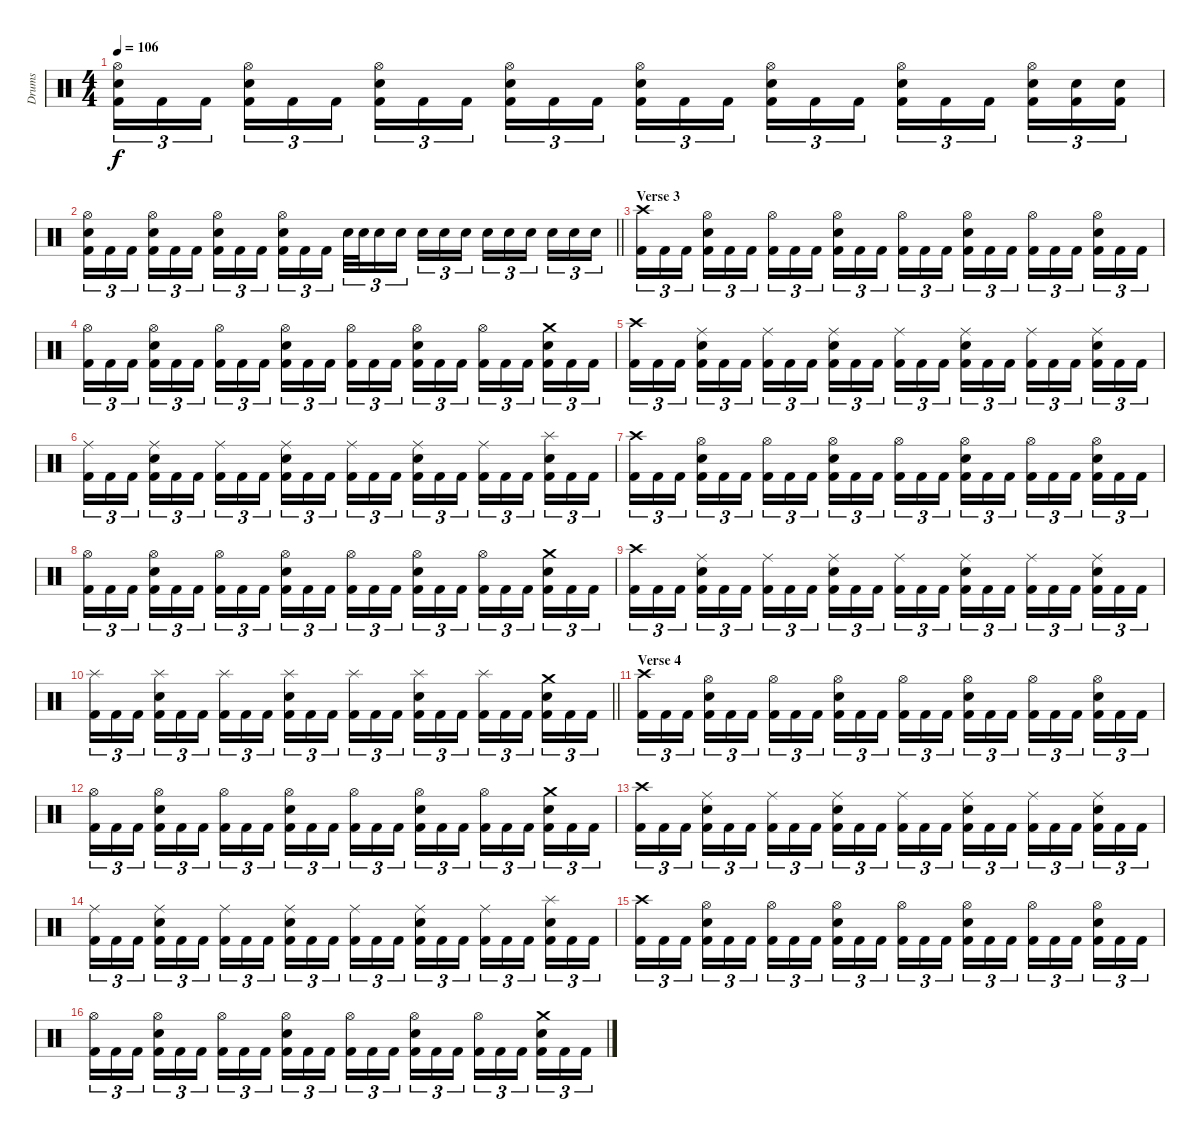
\track ("Drums" "Drums") {instrument percussion}
\staff {score}
\articulation defaults
\ts (4 4)
\tempo 106
\clef neutral
\ks c
("Hi-Hat (open)" "Electric Snare (hit)" "Kick (hit) 2").16{tu (3 2) dy f} "Kick (hit) 2".16{tu (3 2)} "Kick (hit) 2".16{tu (3 2)} ("Hi-Hat (open)" "Electric Snare (hit)" "Kick (hit) 2").16{tu (3 2)} "Kick (hit) 2".16{tu (3 2)} "Kick (hit) 2".16{tu (3 2)} ("Hi-Hat (open)" "Electric Snare (hit)" "Kick (hit) 2").16{tu (3 2)} "Kick (hit) 2".16{tu (3 2)} "Kick (hit) 2".16{tu (3 2)} ("Hi-Hat (open)" "Electric Snare (hit)" "Kick (hit) 2").16{tu (3 2)} "Kick (hit) 2".16{tu (3 2)} "Kick (hit) 2".16{tu (3 2)} ("Hi-Hat (open)" "Electric Snare (hit)" "Kick (hit) 2").16{tu (3 2)} "Kick (hit) 2".16{tu (3 2)} "Kick (hit) 2".16{tu (3 2)} ("Hi-Hat (open)" "Electric Snare (hit)" "Kick (hit) 2").16{tu (3 2)} "Kick (hit) 2".16{tu (3 2)} "Kick (hit) 2".16{tu (3 2)} ("Hi-Hat (open)" "Electric Snare (hit)" "Kick (hit) 2").16{tu (3 2)} "Kick (hit) 2".16{tu (3 2)} "Kick (hit) 2".16{tu (3 2)} ("Hi-Hat (open)" "Electric Snare (hit)" "Kick (hit) 2").16{tu (3 2)} ("Electric Snare (hit)" "Kick (hit) 2").16{tu (3 2)} ("Electric Snare (hit)" "Kick (hit) 2").16{tu (3 2)} |
\barLineRight lightlight
("Hi-Hat (open)" "Electric Snare (hit)" "Kick (hit) 2").16{tu (3 2)} "Kick (hit) 2".16{tu (3 2)} "Kick (hit) 2".16{tu (3 2)} ("Hi-Hat (open)" "Electric Snare (hit)" "Kick (hit) 2").16{tu (3 2)} "Kick (hit) 2".16{tu (3 2)} "Kick (hit) 2".16{tu (3 2)} ("Hi-Hat (open)" "Electric Snare (hit)" "Kick (hit) 2").16{tu (3 2)} "Kick (hit) 2".16{tu (3 2)} "Kick (hit) 2".16{tu (3 2)} ("Hi-Hat (open)" "Electric Snare (hit)" "Kick (hit) 2").16{tu (3 2)} "Kick (hit) 2".16{tu (3 2)} "Kick (hit) 2".16{tu (3 2)} "Electric Snare (hit)".32{tu (3 2)} "Electric Snare (hit)".32{tu (3 2)} "Electric Snare (hit)".16{tu (3 2)} "Electric Snare (hit)".16{tu (3 2)} "Electric Snare (hit)".16{tu (3 2)} "Electric Snare (hit)".16{tu (3 2)} "Electric Snare (hit)".16{tu (3 2)} "Electric Snare (hit)".16{tu (3 2)} "Electric Snare (hit)".16{tu (3 2)} "Electric Snare (hit)".16{tu (3 2)} "Electric Snare (hit)".16{tu (3 2)} "Electric Snare (hit)".16{tu (3 2)} "Electric Snare (hit)".16{tu (3 2)} |
\section ("" "Verse 3")
("Crash high (hit)" "Kick (hit) 2").16{tu (3 2)} "Kick (hit) 2".16{tu (3 2)} "Kick (hit) 2".16{tu (3 2)} ("Hi-Hat (open)" "Electric Snare (hit)" "Kick (hit) 2").16{tu (3 2)} "Kick (hit) 2".16{tu (3 2)} "Kick (hit) 2".16{tu (3 2)} ("Hi-Hat (open)" "Kick (hit) 2").16{tu (3 2)} "Kick (hit) 2".16{tu (3 2)} "Kick (hit) 2".16{tu (3 2)} ("Hi-Hat (open)" "Electric Snare (hit)" "Kick (hit) 2").16{tu (3 2)} "Kick (hit) 2".16{tu (3 2)} "Kick (hit) 2".16{tu (3 2)} ("Hi-Hat (open)" "Kick (hit) 2").16{tu (3 2)} "Kick (hit) 2".16{tu (3 2)} "Kick (hit) 2".16{tu (3 2)} ("Hi-Hat (open)" "Electric Snare (hit)" "Kick (hit) 2").16{tu (3 2)} "Kick (hit) 2".16{tu (3 2)} "Kick (hit) 2".16{tu (3 2)} ("Hi-Hat (open)" "Kick (hit) 2").16{tu (3 2)} "Kick (hit) 2".16{tu (3 2)} "Kick (hit) 2".16{tu (3 2)} ("Hi-Hat (open)" "Electric Snare (hit)" "Kick (hit) 2").16{tu (3 2)} "Kick (hit) 2".16{tu (3 2)} "Kick (hit) 2".16{tu (3 2)} |
("Hi-Hat (open)" "Kick (hit) 2").16{tu (3 2)} "Kick (hit) 2".16{tu (3 2)} "Kick (hit) 2".16{tu (3 2)} ("Hi-Hat (open)" "Electric Snare (hit)" "Kick (hit) 2").16{tu (3 2)} "Kick (hit) 2".16{tu (3 2)} "Kick (hit) 2".16{tu (3 2)} ("Hi-Hat (open)" "Kick (hit) 2").16{tu (3 2)} "Kick (hit) 2".16{tu (3 2)} "Kick (hit) 2".16{tu (3 2)} ("Hi-Hat (open)" "Electric Snare (hit)" "Kick (hit) 2").16{tu (3 2)} "Kick (hit) 2".16{tu (3 2)} "Kick (hit) 2".16{tu (3 2)} ("Hi-Hat (open)" "Kick (hit) 2").16{tu (3 2)} "Kick (hit) 2".16{tu (3 2)} "Kick (hit) 2".16{tu (3 2)} ("Hi-Hat (open)" "Electric Snare (hit)" "Kick (hit) 2").16{tu (3 2)} "Kick (hit) 2".16{tu (3 2)} "Kick (hit) 2".16{tu (3 2)} ("Hi-Hat (open)" "Kick (hit) 2").16{tu (3 2)} "Kick (hit) 2".16{tu (3 2)} "Kick (hit) 2".16{tu (3 2)} ("Crash medium (hit)" "Electric Snare (hit)" "Kick (hit) 2").16{tu (3 2)} "Kick (hit) 2".16{tu (3 2)} "Kick (hit) 2".16{tu (3 2)} |
("Crash high (hit)" "Kick (hit) 2").16{tu (3 2)} "Kick (hit) 2".16{tu (3 2)} "Kick (hit) 2".16{tu (3 2)} ("Ride (middle)" "Electric Snare (hit)" "Kick (hit) 2").16{tu (3 2)} "Kick (hit) 2".16{tu (3 2)} "Kick (hit) 2".16{tu (3 2)} ("Ride (middle)" "Kick (hit) 2").16{tu (3 2)} "Kick (hit) 2".16{tu (3 2)} "Kick (hit) 2".16{tu (3 2)} ("Ride (middle)" "Electric Snare (hit)" "Kick (hit) 2").16{tu (3 2)} "Kick (hit) 2".16{tu (3 2)} "Kick (hit) 2".16{tu (3 2)} ("Ride (middle)" "Kick (hit) 2").16{tu (3 2)} "Kick (hit) 2".16{tu (3 2)} "Kick (hit) 2".16{tu (3 2)} ("Ride (middle)" "Electric Snare (hit)" "Kick (hit) 2").16{tu (3 2)} "Kick (hit) 2".16{tu (3 2)} "Kick (hit) 2".16{tu (3 2)} ("Ride (middle)" "Kick (hit) 2").16{tu (3 2)} "Kick (hit) 2".16{tu (3 2)} "Kick (hit) 2".16{tu (3 2)} ("Ride (middle)" "Electric Snare (hit)" "Kick (hit) 2").16{tu (3 2)} "Kick (hit) 2".16{tu (3 2)} "Kick (hit) 2".16{tu (3 2)} |
("Ride (middle)" "Kick (hit) 2").16{tu (3 2)} "Kick (hit) 2".16{tu (3 2)} "Kick (hit) 2".16{tu (3 2)} ("Ride (middle)" "Electric Snare (hit)" "Kick (hit) 2").16{tu (3 2)} "Kick (hit) 2".16{tu (3 2)} "Kick (hit) 2".16{tu (3 2)} ("Ride (middle)" "Kick (hit) 2").16{tu (3 2)} "Kick (hit) 2".16{tu (3 2)} "Kick (hit) 2".16{tu (3 2)} ("Ride (middle)" "Electric Snare (hit)" "Kick (hit) 2").16{tu (3 2)} "Kick (hit) 2".16{tu (3 2)} "Kick (hit) 2".16{tu (3 2)} ("Ride (middle)" "Kick (hit) 2").16{tu (3 2)} "Kick (hit) 2".16{tu (3 2)} "Kick (hit) 2".16{tu (3 2)} ("Ride (middle)" "Electric Snare (hit)" "Kick (hit) 2").16{tu (3 2)} "Kick (hit) 2".16{tu (3 2)} "Kick (hit) 2".16{tu (3 2)} ("Ride (middle)" "Kick (hit) 2").16{tu (3 2)} "Kick (hit) 2".16{tu (3 2)} "Kick (hit) 2".16{tu (3 2)} ("Splash (hit)" "Electric Snare (hit)" "Kick (hit) 2").16{tu (3 2)} "Kick (hit) 2".16{tu (3 2)} "Kick (hit) 2".16{tu (3 2)} |
("Crash high (hit)" "Kick (hit) 2").16{tu (3 2)} "Kick (hit) 2".16{tu (3 2)} "Kick (hit) 2".16{tu (3 2)} ("Hi-Hat (open)" "Electric Snare (hit)" "Kick (hit) 2").16{tu (3 2)} "Kick (hit) 2".16{tu (3 2)} "Kick (hit) 2".16{tu (3 2)} ("Hi-Hat (open)" "Kick (hit) 2").16{tu (3 2)} "Kick (hit) 2".16{tu (3 2)} "Kick (hit) 2".16{tu (3 2)} ("Hi-Hat (open)" "Electric Snare (hit)" "Kick (hit) 2").16{tu (3 2)} "Kick (hit) 2".16{tu (3 2)} "Kick (hit) 2".16{tu (3 2)} ("Hi-Hat (open)" "Kick (hit) 2").16{tu (3 2)} "Kick (hit) 2".16{tu (3 2)} "Kick (hit) 2".16{tu (3 2)} ("Hi-Hat (open)" "Electric Snare (hit)" "Kick (hit) 2").16{tu (3 2)} "Kick (hit) 2".16{tu (3 2)} "Kick (hit) 2".16{tu (3 2)} ("Hi-Hat (open)" "Kick (hit) 2").16{tu (3 2)} "Kick (hit) 2".16{tu (3 2)} "Kick (hit) 2".16{tu (3 2)} ("Hi-Hat (open)" "Electric Snare (hit)" "Kick (hit) 2").16{tu (3 2)} "Kick (hit) 2".16{tu (3 2)} "Kick (hit) 2".16{tu (3 2)} |
("Hi-Hat (open)" "Kick (hit) 2").16{tu (3 2)} "Kick (hit) 2".16{tu (3 2)} "Kick (hit) 2".16{tu (3 2)} ("Hi-Hat (open)" "Electric Snare (hit)" "Kick (hit) 2").16{tu (3 2)} "Kick (hit) 2".16{tu (3 2)} "Kick (hit) 2".16{tu (3 2)} ("Hi-Hat (open)" "Kick (hit) 2").16{tu (3 2)} "Kick (hit) 2".16{tu (3 2)} "Kick (hit) 2".16{tu (3 2)} ("Hi-Hat (open)" "Electric Snare (hit)" "Kick (hit) 2").16{tu (3 2)} "Kick (hit) 2".16{tu (3 2)} "Kick (hit) 2".16{tu (3 2)} ("Hi-Hat (open)" "Kick (hit) 2").16{tu (3 2)} "Kick (hit) 2".16{tu (3 2)} "Kick (hit) 2".16{tu (3 2)} ("Hi-Hat (open)" "Electric Snare (hit)" "Kick (hit) 2").16{tu (3 2)} "Kick (hit) 2".16{tu (3 2)} "Kick (hit) 2".16{tu (3 2)} ("Hi-Hat (open)" "Kick (hit) 2").16{tu (3 2)} "Kick (hit) 2".16{tu (3 2)} "Kick (hit) 2".16{tu (3 2)} ("Crash medium (hit)" "Electric Snare (hit)" "Kick (hit) 2").16{tu (3 2)} "Kick (hit) 2".16{tu (3 2)} "Kick (hit) 2".16{tu (3 2)} |
("Crash high (hit)" "Kick (hit) 2").16{tu (3 2)} "Kick (hit) 2".16{tu (3 2)} "Kick (hit) 2".16{tu (3 2)} ("Ride (middle)" "Electric Snare (hit)" "Kick (hit) 2").16{tu (3 2)} "Kick (hit) 2".16{tu (3 2)} "Kick (hit) 2".16{tu (3 2)} ("Ride (middle)" "Kick (hit) 2").16{tu (3 2)} "Kick (hit) 2".16{tu (3 2)} "Kick (hit) 2".16{tu (3 2)} ("Ride (middle)" "Electric Snare (hit)" "Kick (hit) 2").16{tu (3 2)} "Kick (hit) 2".16{tu (3 2)} "Kick (hit) 2".16{tu (3 2)} ("Ride (middle)" "Kick (hit) 2").16{tu (3 2)} "Kick (hit) 2".16{tu (3 2)} "Kick (hit) 2".16{tu (3 2)} ("Ride (middle)" "Electric Snare (hit)" "Kick (hit) 2").16{tu (3 2)} "Kick (hit) 2".16{tu (3 2)} "Kick (hit) 2".16{tu (3 2)} ("Ride (middle)" "Kick (hit) 2").16{tu (3 2)} "Kick (hit) 2".16{tu (3 2)} "Kick (hit) 2".16{tu (3 2)} ("Ride (middle)" "Electric Snare (hit)" "Kick (hit) 2").16{tu (3 2)} "Kick (hit) 2".16{tu (3 2)} "Kick (hit) 2".16{tu (3 2)} |
\barLineRight lightlight
("Splash (hit)" "Kick (hit) 2").16{tu (3 2)} "Kick (hit) 2".16{tu (3 2)} "Kick (hit) 2".16{tu (3 2)} ("Splash (hit)" "Electric Snare (hit)" "Kick (hit) 2").16{tu (3 2)} "Kick (hit) 2".16{tu (3 2)} "Kick (hit) 2".16{tu (3 2)} ("Splash (hit)" "Kick (hit) 2").16{tu (3 2)} "Kick (hit) 2".16{tu (3 2)} "Kick (hit) 2".16{tu (3 2)} ("Splash (hit)" "Electric Snare (hit)" "Kick (hit) 2").16{tu (3 2)} "Kick (hit) 2".16{tu (3 2)} "Kick (hit) 2".16{tu (3 2)} ("Splash (hit)" "Kick (hit) 2").16{tu (3 2)} "Kick (hit) 2".16{tu (3 2)} "Kick (hit) 2".16{tu (3 2)} ("Splash (hit)" "Electric Snare (hit)" "Kick (hit) 2").16{tu (3 2)} "Kick (hit) 2".16{tu (3 2)} "Kick (hit) 2".16{tu (3 2)} ("Splash (hit)" "Kick (hit) 2").16{tu (3 2)} "Kick (hit) 2".16{tu (3 2)} "Kick (hit) 2".16{tu (3 2)} ("Crash medium (hit)" "Electric Snare (hit)" "Kick (hit) 2").16{tu (3 2)} "Kick (hit) 2".16{tu (3 2)} "Kick (hit) 2".16{tu (3 2)} |
\section ("" "Verse 4")
("Crash high (hit)" "Kick (hit) 2").16{tu (3 2)} "Kick (hit) 2".16{tu (3 2)} "Kick (hit) 2".16{tu (3 2)} ("Hi-Hat (open)" "Electric Snare (hit)" "Kick (hit) 2").16{tu (3 2)} "Kick (hit) 2".16{tu (3 2)} "Kick (hit) 2".16{tu (3 2)} ("Hi-Hat (open)" "Kick (hit) 2").16{tu (3 2)} "Kick (hit) 2".16{tu (3 2)} "Kick (hit) 2".16{tu (3 2)} ("Hi-Hat (open)" "Electric Snare (hit)" "Kick (hit) 2").16{tu (3 2)} "Kick (hit) 2".16{tu (3 2)} "Kick (hit) 2".16{tu (3 2)} ("Hi-Hat (open)" "Kick (hit) 2").16{tu (3 2)} "Kick (hit) 2".16{tu (3 2)} "Kick (hit) 2".16{tu (3 2)} ("Hi-Hat (open)" "Electric Snare (hit)" "Kick (hit) 2").16{tu (3 2)} "Kick (hit) 2".16{tu (3 2)} "Kick (hit) 2".16{tu (3 2)} ("Hi-Hat (open)" "Kick (hit) 2").16{tu (3 2)} "Kick (hit) 2".16{tu (3 2)} "Kick (hit) 2".16{tu (3 2)} ("Hi-Hat (open)" "Electric Snare (hit)" "Kick (hit) 2").16{tu (3 2)} "Kick (hit) 2".16{tu (3 2)} "Kick (hit) 2".16{tu (3 2)} |
("Hi-Hat (open)" "Kick (hit) 2").16{tu (3 2)} "Kick (hit) 2".16{tu (3 2)} "Kick (hit) 2".16{tu (3 2)} ("Hi-Hat (open)" "Electric Snare (hit)" "Kick (hit) 2").16{tu (3 2)} "Kick (hit) 2".16{tu (3 2)} "Kick (hit) 2".16{tu (3 2)} ("Hi-Hat (open)" "Kick (hit) 2").16{tu (3 2)} "Kick (hit) 2".16{tu (3 2)} "Kick (hit) 2".16{tu (3 2)} ("Hi-Hat (open)" "Electric Snare (hit)" "Kick (hit) 2").16{tu (3 2)} "Kick (hit) 2".16{tu (3 2)} "Kick (hit) 2".16{tu (3 2)} ("Hi-Hat (open)" "Kick (hit) 2").16{tu (3 2)} "Kick (hit) 2".16{tu (3 2)} "Kick (hit) 2".16{tu (3 2)} ("Hi-Hat (open)" "Electric Snare (hit)" "Kick (hit) 2").16{tu (3 2)} "Kick (hit) 2".16{tu (3 2)} "Kick (hit) 2".16{tu (3 2)} ("Hi-Hat (open)" "Kick (hit) 2").16{tu (3 2)} "Kick (hit) 2".16{tu (3 2)} "Kick (hit) 2".16{tu (3 2)} ("Crash medium (hit)" "Electric Snare (hit)" "Kick (hit) 2").16{tu (3 2)} "Kick (hit) 2".16{tu (3 2)} "Kick (hit) 2".16{tu (3 2)} |
("Crash high (hit)" "Kick (hit) 2").16{tu (3 2)} "Kick (hit) 2".16{tu (3 2)} "Kick (hit) 2".16{tu (3 2)} ("Ride (middle)" "Electric Snare (hit)" "Kick (hit) 2").16{tu (3 2)} "Kick (hit) 2".16{tu (3 2)} "Kick (hit) 2".16{tu (3 2)} ("Ride (middle)" "Kick (hit) 2").16{tu (3 2)} "Kick (hit) 2".16{tu (3 2)} "Kick (hit) 2".16{tu (3 2)} ("Ride (middle)" "Electric Snare (hit)" "Kick (hit) 2").16{tu (3 2)} "Kick (hit) 2".16{tu (3 2)} "Kick (hit) 2".16{tu (3 2)} ("Ride (middle)" "Kick (hit) 2").16{tu (3 2)} "Kick (hit) 2".16{tu (3 2)} "Kick (hit) 2".16{tu (3 2)} ("Ride (middle)" "Electric Snare (hit)" "Kick (hit) 2").16{tu (3 2)} "Kick (hit) 2".16{tu (3 2)} "Kick (hit) 2".16{tu (3 2)} ("Ride (middle)" "Kick (hit) 2").16{tu (3 2)} "Kick (hit) 2".16{tu (3 2)} "Kick (hit) 2".16{tu (3 2)} ("Ride (middle)" "Electric Snare (hit)" "Kick (hit) 2").16{tu (3 2)} "Kick (hit) 2".16{tu (3 2)} "Kick (hit) 2".16{tu (3 2)} |
("Ride (middle)" "Kick (hit) 2").16{tu (3 2)} "Kick (hit) 2".16{tu (3 2)} "Kick (hit) 2".16{tu (3 2)} ("Ride (middle)" "Electric Snare (hit)" "Kick (hit) 2").16{tu (3 2)} "Kick (hit) 2".16{tu (3 2)} "Kick (hit) 2".16{tu (3 2)} ("Ride (middle)" "Kick (hit) 2").16{tu (3 2)} "Kick (hit) 2".16{tu (3 2)} "Kick (hit) 2".16{tu (3 2)} ("Ride (middle)" "Electric Snare (hit)" "Kick (hit) 2").16{tu (3 2)} "Kick (hit) 2".16{tu (3 2)} "Kick (hit) 2".16{tu (3 2)} ("Ride (middle)" "Kick (hit) 2").16{tu (3 2)} "Kick (hit) 2".16{tu (3 2)} "Kick (hit) 2".16{tu (3 2)} ("Ride (middle)" "Electric Snare (hit)" "Kick (hit) 2").16{tu (3 2)} "Kick (hit) 2".16{tu (3 2)} "Kick (hit) 2".16{tu (3 2)} ("Ride (middle)" "Kick (hit) 2").16{tu (3 2)} "Kick (hit) 2".16{tu (3 2)} "Kick (hit) 2".16{tu (3 2)} ("Splash (hit)" "Electric Snare (hit)" "Kick (hit) 2").16{tu (3 2)} "Kick (hit) 2".16{tu (3 2)} "Kick (hit) 2".16{tu (3 2)} |
("Crash high (hit)" "Kick (hit) 2").16{tu (3 2)} "Kick (hit) 2".16{tu (3 2)} "Kick (hit) 2".16{tu (3 2)} ("Hi-Hat (open)" "Electric Snare (hit)" "Kick (hit) 2").16{tu (3 2)} "Kick (hit) 2".16{tu (3 2)} "Kick (hit) 2".16{tu (3 2)} ("Hi-Hat (open)" "Kick (hit) 2").16{tu (3 2)} "Kick (hit) 2".16{tu (3 2)} "Kick (hit) 2".16{tu (3 2)} ("Hi-Hat (open)" "Electric Snare (hit)" "Kick (hit) 2").16{tu (3 2)} "Kick (hit) 2".16{tu (3 2)} "Kick (hit) 2".16{tu (3 2)} ("Hi-Hat (open)" "Kick (hit) 2").16{tu (3 2)} "Kick (hit) 2".16{tu (3 2)} "Kick (hit) 2".16{tu (3 2)} ("Hi-Hat (open)" "Electric Snare (hit)" "Kick (hit) 2").16{tu (3 2)} "Kick (hit) 2".16{tu (3 2)} "Kick (hit) 2".16{tu (3 2)} ("Hi-Hat (open)" "Kick (hit) 2").16{tu (3 2)} "Kick (hit) 2".16{tu (3 2)} "Kick (hit) 2".16{tu (3 2)} ("Hi-Hat (open)" "Electric Snare (hit)" "Kick (hit) 2").16{tu (3 2)} "Kick (hit) 2".16{tu (3 2)} "Kick (hit) 2".16{tu (3 2)} |
("Hi-Hat (open)" "Kick (hit) 2").16{tu (3 2)} "Kick (hit) 2".16{tu (3 2)} "Kick (hit) 2".16{tu (3 2)} ("Hi-Hat (open)" "Electric Snare (hit)" "Kick (hit) 2").16{tu (3 2)} "Kick (hit) 2".16{tu (3 2)} "Kick (hit) 2".16{tu (3 2)} ("Hi-Hat (open)" "Kick (hit) 2").16{tu (3 2)} "Kick (hit) 2".16{tu (3 2)} "Kick (hit) 2".16{tu (3 2)} ("Hi-Hat (open)" "Electric Snare (hit)" "Kick (hit) 2").16{tu (3 2)} "Kick (hit) 2".16{tu (3 2)} "Kick (hit) 2".16{tu (3 2)} ("Hi-Hat (open)" "Kick (hit) 2").16{tu (3 2)} "Kick (hit) 2".16{tu (3 2)} "Kick (hit) 2".16{tu (3 2)} ("Hi-Hat (open)" "Electric Snare (hit)" "Kick (hit) 2").16{tu (3 2)} "Kick (hit) 2".16{tu (3 2)} "Kick (hit) 2".16{tu (3 2)} ("Hi-Hat (open)" "Kick (hit) 2").16{tu (3 2)} "Kick (hit) 2".16{tu (3 2)} "Kick (hit) 2".16{tu (3 2)} ("Crash medium (hit)" "Electric Snare (hit)" "Kick (hit) 2").16{tu (3 2)} "Kick (hit) 2".16{tu (3 2)} "Kick (hit) 2".16{tu (3 2)}
